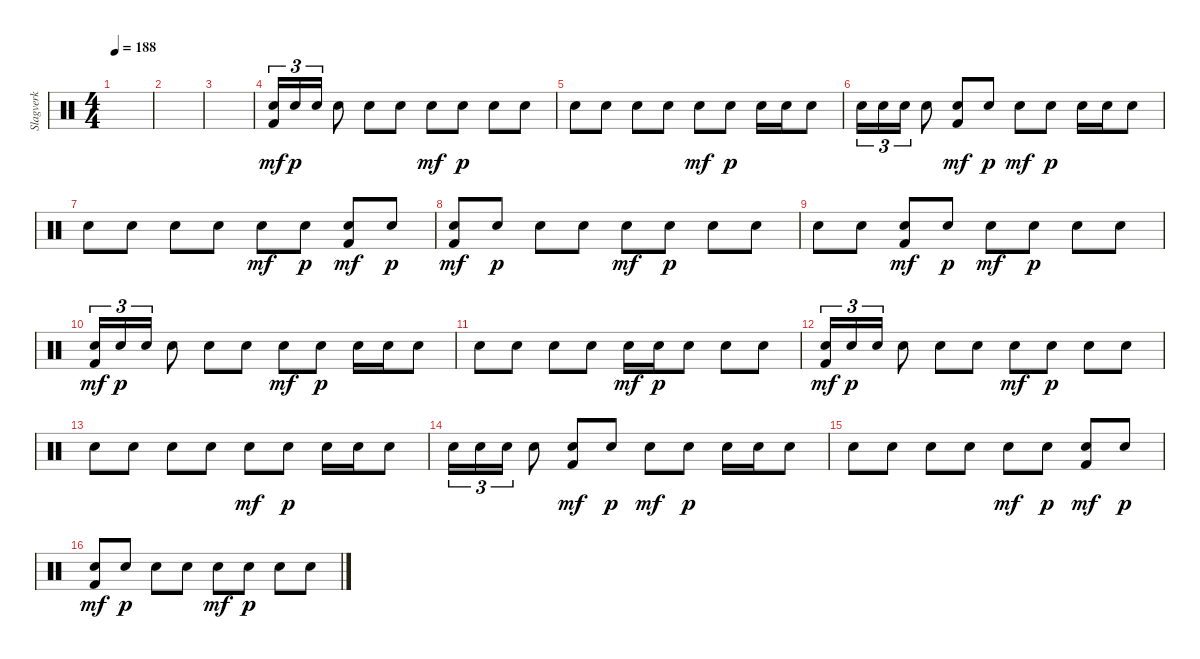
\track ("Slagverk" "Slagverk") {instrument percussion}
\staff {score}
\articulation defaults
\ts (4 4)
\tempo 188
\clef neutral
\ks c
|
|
|
("Electric Snare (hit)" "Kick (hit) 2").16{tu (3 2) dy mf} "Electric Snare (hit)".16{tu (3 2) dy p} "Electric Snare (hit)".16{tu (3 2)} "Electric Snare (hit)".8 "Electric Snare (hit)".8 "Electric Snare (hit)".8 "Electric Snare (hit)".8{dy mf} "Electric Snare (hit)".8{dy p} "Electric Snare (hit)".8 "Electric Snare (hit)".8 |
"Electric Snare (hit)".8 "Electric Snare (hit)".8 "Electric Snare (hit)".8 "Electric Snare (hit)".8 "Electric Snare (hit)".8{dy mf} "Electric Snare (hit)".8{dy p} "Electric Snare (hit)".16 "Electric Snare (hit)".16 "Electric Snare (hit)".8 |
"Electric Snare (hit)".16{tu (3 2)} "Electric Snare (hit)".16{tu (3 2)} "Electric Snare (hit)".16{tu (3 2)} "Electric Snare (hit)".8 ("Electric Snare (hit)" "Kick (hit) 2").8{dy mf} "Electric Snare (hit)".8{dy p} "Electric Snare (hit)".8{dy mf} "Electric Snare (hit)".8{dy p} "Electric Snare (hit)".16 "Electric Snare (hit)".16 "Electric Snare (hit)".8 |
"Electric Snare (hit)".8 "Electric Snare (hit)".8 "Electric Snare (hit)".8 "Electric Snare (hit)".8 "Electric Snare (hit)".8{dy mf} "Electric Snare (hit)".8{dy p} ("Electric Snare (hit)" "Kick (hit) 2").8{dy mf} "Electric Snare (hit)".8{dy p} |
("Electric Snare (hit)" "Kick (hit) 2").8{dy mf} "Electric Snare (hit)".8{dy p} "Electric Snare (hit)".8 "Electric Snare (hit)".8 "Electric Snare (hit)".8{dy mf} "Electric Snare (hit)".8{dy p} "Electric Snare (hit)".8 "Electric Snare (hit)".8 |
"Electric Snare (hit)".8 "Electric Snare (hit)".8 ("Electric Snare (hit)" "Kick (hit) 2").8{dy mf} "Electric Snare (hit)".8{dy p} "Electric Snare (hit)".8{dy mf} "Electric Snare (hit)".8{dy p} "Electric Snare (hit)".8 "Electric Snare (hit)".8 |
("Electric Snare (hit)" "Kick (hit) 2").16{tu (3 2) dy mf} "Electric Snare (hit)".16{tu (3 2) dy p} "Electric Snare (hit)".16{tu (3 2)} "Electric Snare (hit)".8 "Electric Snare (hit)".8 "Electric Snare (hit)".8 "Electric Snare (hit)".8{dy mf} "Electric Snare (hit)".8{dy p} "Electric Snare (hit)".16 "Electric Snare (hit)".16 "Electric Snare (hit)".8 |
"Electric Snare (hit)".8 "Electric Snare (hit)".8 "Electric Snare (hit)".8 "Electric Snare (hit)".8 "Electric Snare (hit)".16{dy mf} "Electric Snare (hit)".16{dy p} "Electric Snare (hit)".8 "Electric Snare (hit)".8 "Electric Snare (hit)".8 |
("Electric Snare (hit)" "Kick (hit) 2").16{tu (3 2) dy mf} "Electric Snare (hit)".16{tu (3 2) dy p} "Electric Snare (hit)".16{tu (3 2)} "Electric Snare (hit)".8 "Electric Snare (hit)".8 "Electric Snare (hit)".8 "Electric Snare (hit)".8{dy mf} "Electric Snare (hit)".8{dy p} "Electric Snare (hit)".8 "Electric Snare (hit)".8 |
"Electric Snare (hit)".8 "Electric Snare (hit)".8 "Electric Snare (hit)".8 "Electric Snare (hit)".8 "Electric Snare (hit)".8{dy mf} "Electric Snare (hit)".8{dy p} "Electric Snare (hit)".16 "Electric Snare (hit)".16 "Electric Snare (hit)".8 |
"Electric Snare (hit)".16{tu (3 2)} "Electric Snare (hit)".16{tu (3 2)} "Electric Snare (hit)".16{tu (3 2)} "Electric Snare (hit)".8 ("Electric Snare (hit)" "Kick (hit) 2").8{dy mf} "Electric Snare (hit)".8{dy p} "Electric Snare (hit)".8{dy mf} "Electric Snare (hit)".8{dy p} "Electric Snare (hit)".16 "Electric Snare (hit)".16 "Electric Snare (hit)".8 |
"Electric Snare (hit)".8 "Electric Snare (hit)".8 "Electric Snare (hit)".8 "Electric Snare (hit)".8 "Electric Snare (hit)".8{dy mf} "Electric Snare (hit)".8{dy p} ("Electric Snare (hit)" "Kick (hit) 2").8{dy mf} "Electric Snare (hit)".8{dy p} |
("Electric Snare (hit)" "Kick (hit) 2").8{dy mf} "Electric Snare (hit)".8{dy p} "Electric Snare (hit)".8 "Electric Snare (hit)".8 "Electric Snare (hit)".8{dy mf} "Electric Snare (hit)".8{dy p} "Electric Snare (hit)".8 "Electric Snare (hit)".8
